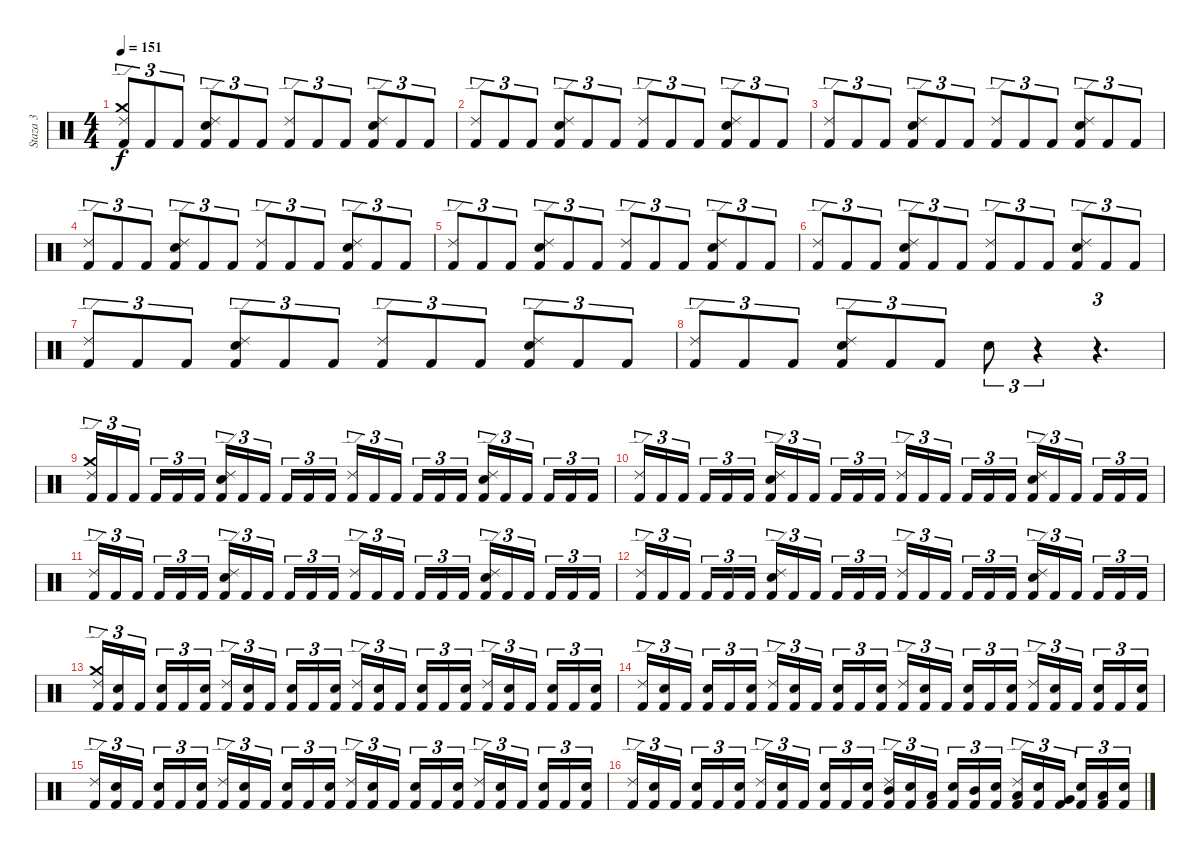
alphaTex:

\track ("Staza 3" "Staza 3") {instrument percussion}
\staff {score}
\articulation defaults
\ts (4 4)
\tempo 151
\clef neutral
\ks c
("Kick (hit) 2" "Crash medium (hit)" "Ride (edge) 2").8{tu (3 2) dy f} "Kick (hit) 2".8{tu (3 2)} "Kick (hit) 2".8{tu (3 2)} ("Kick (hit) 2" "Electric Snare (hit)" "Ride (edge) 2").8{tu (3 2)} "Kick (hit) 2".8{tu (3 2)} "Kick (hit) 2".8{tu (3 2)} ("Kick (hit) 2" "Ride (edge) 2").8{tu (3 2)} "Kick (hit) 2".8{tu (3 2)} "Kick (hit) 2".8{tu (3 2)} ("Kick (hit) 2" "Electric Snare (hit)" "Ride (edge) 2").8{tu (3 2)} "Kick (hit) 2".8{tu (3 2)} "Kick (hit) 2".8{tu (3 2)} |
("Kick (hit) 2" "Ride (edge) 2").8{tu (3 2)} "Kick (hit) 2".8{tu (3 2)} "Kick (hit) 2".8{tu (3 2)} ("Kick (hit) 2" "Electric Snare (hit)" "Ride (edge) 2").8{tu (3 2)} "Kick (hit) 2".8{tu (3 2)} "Kick (hit) 2".8{tu (3 2)} ("Kick (hit) 2" "Ride (edge) 2").8{tu (3 2)} "Kick (hit) 2".8{tu (3 2)} "Kick (hit) 2".8{tu (3 2)} ("Kick (hit) 2" "Electric Snare (hit)" "Ride (edge) 2").8{tu (3 2)} "Kick (hit) 2".8{tu (3 2)} "Kick (hit) 2".8{tu (3 2)} |
("Kick (hit) 2" "Ride (edge) 2").8{tu (3 2)} "Kick (hit) 2".8{tu (3 2)} "Kick (hit) 2".8{tu (3 2)} ("Kick (hit) 2" "Electric Snare (hit)" "Ride (edge) 2").8{tu (3 2)} "Kick (hit) 2".8{tu (3 2)} "Kick (hit) 2".8{tu (3 2)} ("Kick (hit) 2" "Ride (edge) 2").8{tu (3 2)} "Kick (hit) 2".8{tu (3 2)} "Kick (hit) 2".8{tu (3 2)} ("Kick (hit) 2" "Electric Snare (hit)" "Ride (edge) 2").8{tu (3 2)} "Kick (hit) 2".8{tu (3 2)} "Kick (hit) 2".8{tu (3 2)} |
("Kick (hit) 2" "Ride (edge) 2").8{tu (3 2)} "Kick (hit) 2".8{tu (3 2)} "Kick (hit) 2".8{tu (3 2)} ("Kick (hit) 2" "Electric Snare (hit)" "Ride (edge) 2").8{tu (3 2)} "Kick (hit) 2".8{tu (3 2)} "Kick (hit) 2".8{tu (3 2)} ("Kick (hit) 2" "Ride (edge) 2").8{tu (3 2)} "Kick (hit) 2".8{tu (3 2)} "Kick (hit) 2".8{tu (3 2)} ("Kick (hit) 2" "Electric Snare (hit)" "Ride (edge) 2").8{tu (3 2)} "Kick (hit) 2".8{tu (3 2)} "Kick (hit) 2".8{tu (3 2)} |
("Kick (hit) 2" "Ride (edge) 2").8{tu (3 2)} "Kick (hit) 2".8{tu (3 2)} "Kick (hit) 2".8{tu (3 2)} ("Kick (hit) 2" "Electric Snare (hit)" "Ride (edge) 2").8{tu (3 2)} "Kick (hit) 2".8{tu (3 2)} "Kick (hit) 2".8{tu (3 2)} ("Kick (hit) 2" "Ride (edge) 2").8{tu (3 2)} "Kick (hit) 2".8{tu (3 2)} "Kick (hit) 2".8{tu (3 2)} ("Kick (hit) 2" "Electric Snare (hit)" "Ride (edge) 2").8{tu (3 2)} "Kick (hit) 2".8{tu (3 2)} "Kick (hit) 2".8{tu (3 2)} |
("Kick (hit) 2" "Ride (edge) 2").8{tu (3 2)} "Kick (hit) 2".8{tu (3 2)} "Kick (hit) 2".8{tu (3 2)} ("Kick (hit) 2" "Electric Snare (hit)" "Ride (edge) 2").8{tu (3 2)} "Kick (hit) 2".8{tu (3 2)} "Kick (hit) 2".8{tu (3 2)} ("Kick (hit) 2" "Ride (edge) 2").8{tu (3 2)} "Kick (hit) 2".8{tu (3 2)} "Kick (hit) 2".8{tu (3 2)} ("Kick (hit) 2" "Electric Snare (hit)" "Ride (edge) 2").8{tu (3 2)} "Kick (hit) 2".8{tu (3 2)} "Kick (hit) 2".8{tu (3 2)} |
("Kick (hit) 2" "Ride (edge) 2").8{tu (3 2)} "Kick (hit) 2".8{tu (3 2)} "Kick (hit) 2".8{tu (3 2)} ("Kick (hit) 2" "Electric Snare (hit)" "Ride (edge) 2").8{tu (3 2)} "Kick (hit) 2".8{tu (3 2)} "Kick (hit) 2".8{tu (3 2)} ("Kick (hit) 2" "Ride (edge) 2").8{tu (3 2)} "Kick (hit) 2".8{tu (3 2)} "Kick (hit) 2".8{tu (3 2)} ("Kick (hit) 2" "Electric Snare (hit)" "Ride (edge) 2").8{tu (3 2)} "Kick (hit) 2".8{tu (3 2)} "Kick (hit) 2".8{tu (3 2)} |
("Kick (hit) 2" "Ride (edge) 2").8{tu (3 2)} "Kick (hit) 2".8{tu (3 2)} "Kick (hit) 2".8{tu (3 2)} ("Kick (hit) 2" "Electric Snare (hit)" "Ride (edge) 2").8{tu (3 2)} "Kick (hit) 2".8{tu (3 2)} "Kick (hit) 2".8{tu (3 2)} "Electric Snare (hit)".8{tu (3 2)} r.4{tu (3 2)} r.4{d tu (3 2)} |
("Kick (hit) 2" "Crash medium (hit)" "Ride (edge) 2").16{tu (3 2)} "Kick (hit) 2".16{tu (3 2)} "Kick (hit) 2".16{tu (3 2)} "Kick (hit) 2".16{tu (3 2)} "Kick (hit) 2".16{tu (3 2)} "Kick (hit) 2".16{tu (3 2)} ("Kick (hit) 2" "Electric Snare (hit)" "Ride (edge) 2").16{tu (3 2)} "Kick (hit) 2".16{tu (3 2)} "Kick (hit) 2".16{tu (3 2)} "Kick (hit) 2".16{tu (3 2)} "Kick (hit) 2".16{tu (3 2)} "Kick (hit) 2".16{tu (3 2)} ("Kick (hit) 2" "Ride (edge) 2").16{tu (3 2)} "Kick (hit) 2".16{tu (3 2)} "Kick (hit) 2".16{tu (3 2)} "Kick (hit) 2".16{tu (3 2)} "Kick (hit) 2".16{tu (3 2)} "Kick (hit) 2".16{tu (3 2)} ("Kick (hit) 2" "Electric Snare (hit)" "Ride (edge) 2").16{tu (3 2)} "Kick (hit) 2".16{tu (3 2)} "Kick (hit) 2".16{tu (3 2)} "Kick (hit) 2".16{tu (3 2)} "Kick (hit) 2".16{tu (3 2)} "Kick (hit) 2".16{tu (3 2)} |
("Kick (hit) 2" "Ride (edge) 2").16{tu (3 2)} "Kick (hit) 2".16{tu (3 2)} "Kick (hit) 2".16{tu (3 2)} "Kick (hit) 2".16{tu (3 2)} "Kick (hit) 2".16{tu (3 2)} "Kick (hit) 2".16{tu (3 2)} ("Kick (hit) 2" "Electric Snare (hit)" "Ride (edge) 2").16{tu (3 2)} "Kick (hit) 2".16{tu (3 2)} "Kick (hit) 2".16{tu (3 2)} "Kick (hit) 2".16{tu (3 2)} "Kick (hit) 2".16{tu (3 2)} "Kick (hit) 2".16{tu (3 2)} ("Kick (hit) 2" "Ride (edge) 2").16{tu (3 2)} "Kick (hit) 2".16{tu (3 2)} "Kick (hit) 2".16{tu (3 2)} "Kick (hit) 2".16{tu (3 2)} "Kick (hit) 2".16{tu (3 2)} "Kick (hit) 2".16{tu (3 2)} ("Kick (hit) 2" "Electric Snare (hit)" "Ride (edge) 2").16{tu (3 2)} "Kick (hit) 2".16{tu (3 2)} "Kick (hit) 2".16{tu (3 2)} "Kick (hit) 2".16{tu (3 2)} "Kick (hit) 2".16{tu (3 2)} "Kick (hit) 2".16{tu (3 2)} |
("Kick (hit) 2" "Ride (edge) 2").16{tu (3 2)} "Kick (hit) 2".16{tu (3 2)} "Kick (hit) 2".16{tu (3 2)} "Kick (hit) 2".16{tu (3 2)} "Kick (hit) 2".16{tu (3 2)} "Kick (hit) 2".16{tu (3 2)} ("Kick (hit) 2" "Electric Snare (hit)" "Ride (edge) 2").16{tu (3 2)} "Kick (hit) 2".16{tu (3 2)} "Kick (hit) 2".16{tu (3 2)} "Kick (hit) 2".16{tu (3 2)} "Kick (hit) 2".16{tu (3 2)} "Kick (hit) 2".16{tu (3 2)} ("Kick (hit) 2" "Ride (edge) 2").16{tu (3 2)} "Kick (hit) 2".16{tu (3 2)} "Kick (hit) 2".16{tu (3 2)} "Kick (hit) 2".16{tu (3 2)} "Kick (hit) 2".16{tu (3 2)} "Kick (hit) 2".16{tu (3 2)} ("Kick (hit) 2" "Electric Snare (hit)" "Ride (edge) 2").16{tu (3 2)} "Kick (hit) 2".16{tu (3 2)} "Kick (hit) 2".16{tu (3 2)} "Kick (hit) 2".16{tu (3 2)} "Kick (hit) 2".16{tu (3 2)} "Kick (hit) 2".16{tu (3 2)} |
("Kick (hit) 2" "Ride (edge) 2").16{tu (3 2)} "Kick (hit) 2".16{tu (3 2)} "Kick (hit) 2".16{tu (3 2)} "Kick (hit) 2".16{tu (3 2)} "Kick (hit) 2".16{tu (3 2)} "Kick (hit) 2".16{tu (3 2)} ("Kick (hit) 2" "Electric Snare (hit)" "Ride (edge) 2").16{tu (3 2)} "Kick (hit) 2".16{tu (3 2)} "Kick (hit) 2".16{tu (3 2)} "Kick (hit) 2".16{tu (3 2)} "Kick (hit) 2".16{tu (3 2)} "Kick (hit) 2".16{tu (3 2)} ("Kick (hit) 2" "Ride (edge) 2").16{tu (3 2)} "Kick (hit) 2".16{tu (3 2)} "Kick (hit) 2".16{tu (3 2)} "Kick (hit) 2".16{tu (3 2)} "Kick (hit) 2".16{tu (3 2)} "Kick (hit) 2".16{tu (3 2)} ("Kick (hit) 2" "Electric Snare (hit)" "Ride (edge) 2").16{tu (3 2)} "Kick (hit) 2".16{tu (3 2)} "Kick (hit) 2".16{tu (3 2)} "Kick (hit) 2".16{tu (3 2)} "Kick (hit) 2".16{tu (3 2)} "Kick (hit) 2".16{tu (3 2)} |
("Kick (hit) 2" "Crash medium (hit)" "Ride (edge) 2").16{tu (3 2)} ("Kick (hit) 2" "Electric Snare (hit)").16{tu (3 2)} "Kick (hit) 2".16{tu (3 2)} ("Kick (hit) 2" "Electric Snare (hit)").16{tu (3 2)} "Kick (hit) 2".16{tu (3 2)} ("Kick (hit) 2" "Electric Snare (hit)").16{tu (3 2)} ("Kick (hit) 2" "Ride (edge) 2").16{tu (3 2)} ("Kick (hit) 2" "Electric Snare (hit)").16{tu (3 2)} "Kick (hit) 2".16{tu (3 2)} ("Kick (hit) 2" "Electric Snare (hit)").16{tu (3 2)} "Kick (hit) 2".16{tu (3 2)} ("Kick (hit) 2" "Electric Snare (hit)").16{tu (3 2)} ("Kick (hit) 2" "Ride (edge) 2").16{tu (3 2)} ("Kick (hit) 2" "Electric Snare (hit)").16{tu (3 2)} "Kick (hit) 2".16{tu (3 2)} ("Kick (hit) 2" "Electric Snare (hit)").16{tu (3 2)} "Kick (hit) 2".16{tu (3 2)} ("Kick (hit) 2" "Electric Snare (hit)").16{tu (3 2)} ("Kick (hit) 2" "Ride (edge) 2").16{tu (3 2)} ("Kick (hit) 2" "Electric Snare (hit)").16{tu (3 2)} "Kick (hit) 2".16{tu (3 2)} ("Kick (hit) 2" "Electric Snare (hit)").16{tu (3 2)} "Kick (hit) 2".16{tu (3 2)} ("Kick (hit) 2" "Electric Snare (hit)").16{tu (3 2)} |
("Kick (hit) 2" "Ride (edge) 2").16{tu (3 2)} ("Kick (hit) 2" "Electric Snare (hit)").16{tu (3 2)} "Kick (hit) 2".16{tu (3 2)} ("Kick (hit) 2" "Electric Snare (hit)").16{tu (3 2)} "Kick (hit) 2".16{tu (3 2)} ("Kick (hit) 2" "Electric Snare (hit)").16{tu (3 2)} ("Kick (hit) 2" "Ride (edge) 2").16{tu (3 2)} ("Kick (hit) 2" "Electric Snare (hit)").16{tu (3 2)} "Kick (hit) 2".16{tu (3 2)} ("Kick (hit) 2" "Electric Snare (hit)").16{tu (3 2)} "Kick (hit) 2".16{tu (3 2)} ("Kick (hit) 2" "Electric Snare (hit)").16{tu (3 2)} ("Kick (hit) 2" "Ride (edge) 2").16{tu (3 2)} ("Kick (hit) 2" "Electric Snare (hit)").16{tu (3 2)} "Kick (hit) 2".16{tu (3 2)} ("Kick (hit) 2" "Electric Snare (hit)").16{tu (3 2)} "Kick (hit) 2".16{tu (3 2)} ("Kick (hit) 2" "Electric Snare (hit)").16{tu (3 2)} ("Kick (hit) 2" "Ride (edge) 2").16{tu (3 2)} ("Kick (hit) 2" "Electric Snare (hit)").16{tu (3 2)} "Kick (hit) 2".16{tu (3 2)} ("Kick (hit) 2" "Electric Snare (hit)").16{tu (3 2)} "Kick (hit) 2".16{tu (3 2)} ("Kick (hit) 2" "Electric Snare (hit)").16{tu (3 2)} |
("Kick (hit) 2" "Ride (edge) 2").16{tu (3 2)} ("Kick (hit) 2" "Electric Snare (hit)").16{tu (3 2)} "Kick (hit) 2".16{tu (3 2)} ("Kick (hit) 2" "Electric Snare (hit)").16{tu (3 2)} "Kick (hit) 2".16{tu (3 2)} ("Kick (hit) 2" "Electric Snare (hit)").16{tu (3 2)} ("Kick (hit) 2" "Ride (edge) 2").16{tu (3 2)} ("Kick (hit) 2" "Electric Snare (hit)").16{tu (3 2)} "Kick (hit) 2".16{tu (3 2)} ("Kick (hit) 2" "Electric Snare (hit)").16{tu (3 2)} "Kick (hit) 2".16{tu (3 2)} ("Kick (hit) 2" "Electric Snare (hit)").16{tu (3 2)} ("Kick (hit) 2" "Ride (edge) 2").16{tu (3 2)} ("Kick (hit) 2" "Electric Snare (hit)").16{tu (3 2)} "Kick (hit) 2".16{tu (3 2)} ("Kick (hit) 2" "Electric Snare (hit)").16{tu (3 2)} "Kick (hit) 2".16{tu (3 2)} ("Kick (hit) 2" "Electric Snare (hit)").16{tu (3 2)} ("Kick (hit) 2" "Ride (edge) 2").16{tu (3 2)} ("Kick (hit) 2" "Electric Snare (hit)").16{tu (3 2)} "Kick (hit) 2".16{tu (3 2)} ("Kick (hit) 2" "Electric Snare (hit)").16{tu (3 2)} "Kick (hit) 2".16{tu (3 2)} ("Kick (hit) 2" "Electric Snare (hit)").16{tu (3 2)} |
("Kick (hit) 2" "Ride (edge) 2").16{tu (3 2)} ("Kick (hit) 2" "Electric Snare (hit)").16{tu (3 2)} "Kick (hit) 2".16{tu (3 2)} ("Kick (hit) 2" "Electric Snare (hit)").16{tu (3 2)} "Kick (hit) 2".16{tu (3 2)} ("Kick (hit) 2" "Electric Snare (hit)").16{tu (3 2)} ("Kick (hit) 2" "Ride (edge) 2").16{tu (3 2)} ("Kick (hit) 2" "Electric Snare (hit)").16{tu (3 2)} "Kick (hit) 2".16{tu (3 2)} ("Kick (hit) 2" "Electric Snare (hit)").16{tu (3 2)} "Kick (hit) 2".16{tu (3 2)} ("Kick (hit) 2" "Electric Snare (hit)").16{tu (3 2)} ("Kick (hit) 2" "Mid Tom (hit)" "Ride (edge) 2").16{tu (3 2)} ("Kick (hit) 2" "Electric Snare (hit)").16{tu (3 2)} ("Kick (hit) 2" "Low Tom (hit)").16{tu (3 2)} ("Kick (hit) 2" "Electric Snare (hit)").16{tu (3 2)} ("Kick (hit) 2" "Mid Tom (hit)").16{tu (3 2)} ("Kick (hit) 2" "Electric Snare (hit)").16{tu (3 2)} ("Kick (hit) 2" "Low Tom (hit)" "Ride (edge) 2").16{tu (3 2)} ("Kick (hit) 2" "Electric Snare (hit)").16{tu (3 2)} ("Kick (hit) 2" "Very Low Tom (hit)").16{tu (3 2)} ("Kick (hit) 2" "Electric Snare (hit)").16{tu (3 2)} ("Kick (hit) 2" "Low Tom (hit)").16{tu (3 2)} ("Kick (hit) 2" "Electric Snare (hit)").16{tu (3 2)}
